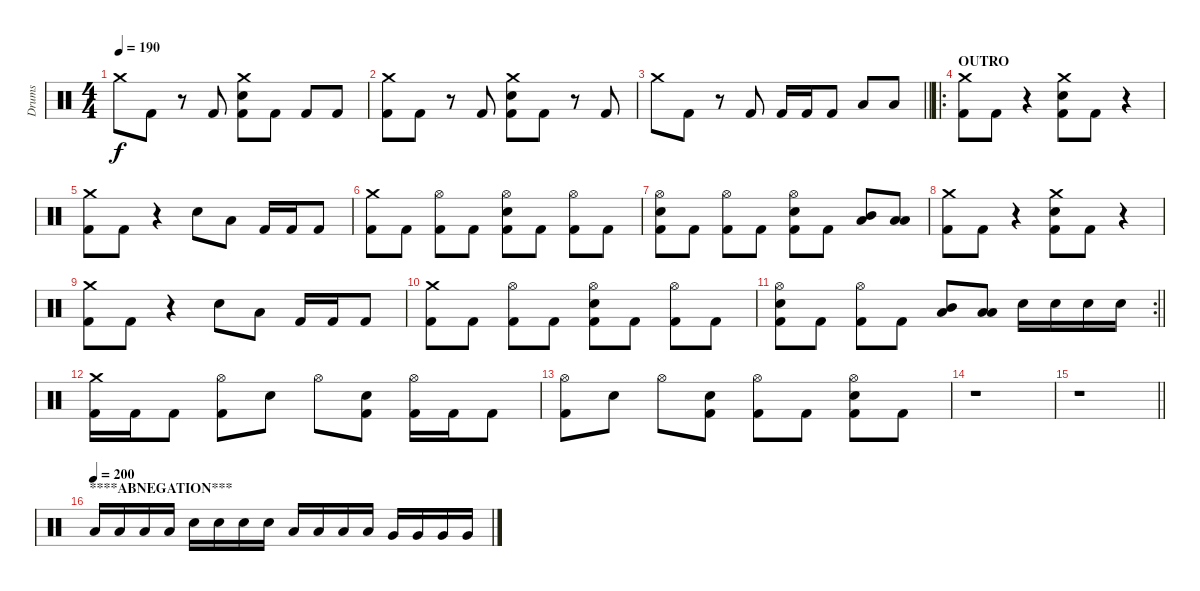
\track ("Drums" "Drums") {instrument percussion}
\staff {score}
\articulation defaults
\ts (4 4)
\tempo 190
\clef neutral
\ks c "Crash medium (hit)".8{dy f} "Kick (hit) 2".8
r.8 "Kick (hit) 2".8 ("Crash medium (hit)" "Electric Snare (hit)" "Kick (hit) 2").8 "Kick (hit) 2".8 "Kick (hit) 2".8 "Kick (hit) 2".8 |
("Crash medium (hit)" "Kick (hit) 2").8 "Kick (hit) 2".8 r.8 "Kick (hit) 2".8 ("Crash medium (hit)" "Electric Snare (hit)" "Kick (hit) 2").8 "Kick (hit) 2".8 r.8 "Kick (hit) 2".8 |
\barLineRight lightlight "Crash medium (hit)".8 "Kick (hit) 2".8
r.8 "Kick (hit) 2".8 "Kick (hit) 2".16 "Kick (hit) 2".16 "Kick (hit) 2".8 "Low Floor Tom (hit)".8 "Low Tom (hit)".8 |
\ro
\section ("" "OUTRO ")
("Crash medium (hit)" "Kick (hit) 2").8 "Kick (hit) 2".8 r.4 ("Crash medium (hit)" "Electric Snare (hit)" "Kick (hit) 2").8 "Kick (hit) 2".8 r.4 |
("Crash medium (hit)" "Kick (hit) 2").8 "Kick (hit) 2".8 r.4 "Electric Snare (hit)".8 "Low Floor Tom (hit)".8 "Kick (hit) 2".16 "Kick (hit) 2".16 "Kick (hit) 2".8 |
("Crash medium (hit)" "Kick (hit) 2").8 "Kick (hit) 2".8 ("Hi-Hat (open)" "Kick (hit) 2").8 "Kick (hit) 2".8 ("Hi-Hat (open)" "Electric Snare (hit)" "Kick (hit) 2").8 "Kick (hit) 2".8 ("Hi-Hat (open)" "Kick (hit) 2").8 "Kick (hit) 2".8 |
("Hi-Hat (open)" "Electric Snare (hit)" "Kick (hit) 2").8 "Kick (hit) 2".8 ("Hi-Hat (open)" "Kick (hit) 2").8 "Kick (hit) 2".8 ("Hi-Hat (open)" "Electric Snare (hit)" "Kick (hit) 2").8 "Kick (hit) 2".8 ("Mid Tom (hit)" "Low Tom (hit)").8 ("Low Tom (hit)" "Low Floor Tom (hit)").8 |
("Crash medium (hit)" "Kick (hit) 2").8 "Kick (hit) 2".8 r.4 ("Crash medium (hit)" "Electric Snare (hit)" "Kick (hit) 2").8 "Kick (hit) 2".8 r.4 |
("Crash medium (hit)" "Kick (hit) 2").8 "Kick (hit) 2".8 r.4 "Electric Snare (hit)".8 "Low Floor Tom (hit)".8 "Kick (hit) 2".16 "Kick (hit) 2".16 "Kick (hit) 2".8 |
("Crash medium (hit)" "Kick (hit) 2").8 "Kick (hit) 2".8 ("Hi-Hat (open)" "Kick (hit) 2").8 "Kick (hit) 2".8 ("Hi-Hat (open)" "Electric Snare (hit)" "Kick (hit) 2").8 "Kick (hit) 2".8 ("Hi-Hat (open)" "Kick (hit) 2").8 "Kick (hit) 2".8 |
\rc 2
\barLineRight lightlight
("Hi-Hat (open)" "Electric Snare (hit)" "Kick (hit) 2").8 "Kick (hit) 2".8 ("Hi-Hat (open)" "Kick (hit) 2").8 "Kick (hit) 2".8 ("Mid Tom (hit)" "Low Tom (hit)").8 ("Low Tom (hit)" "Low Floor Tom (hit)").8 "Electric Snare (hit)".16 "Electric Snare (hit)".16 "Electric Snare (hit)".16 "Electric Snare (hit)".16 |
("Crash medium (hit)" "Kick (hit) 2").16 "Kick (hit) 2".16 "Kick (hit) 2".8 ("Hi-Hat (open)" "Kick (hit) 2").8 "Electric Snare (hit)".8 "Hi-Hat (open)".8 ("Electric Snare (hit)" "Kick (hit) 2").8 ("Hi-Hat (open)" "Kick (hit) 2").16 "Kick (hit) 2".16 "Kick (hit) 2".8 |
("Hi-Hat (open)" "Kick (hit) 2").8 "Electric Snare (hit)".8 "Hi-Hat (open)".8 ("Electric Snare (hit)" "Kick (hit) 2").8 ("Hi-Hat (open)" "Kick (hit) 2").8 "Kick (hit) 2".8 ("Hi-Hat (open)" "Electric Snare (hit)" "Kick (hit) 2").8 "Kick (hit) 2".8 |
r.1 |
\barLineRight lightlight
r.1 |
\section ("" "****ABNEGATION***")
\tempo (200)
"Low Floor Tom (hit)".16 "Low Floor Tom (hit)".16 "Low Floor Tom (hit)".16 "Low Floor Tom (hit)".16 "Electric Snare (hit)".16 "Electric Snare (hit)".16 "Electric Snare (hit)".16 "Electric Snare (hit)".16 "Low Tom (hit)".16 "Low Tom (hit)".16 "Low Tom (hit)".16 "Low Tom (hit)".16 "Very Low Tom (hit)".16 "Very Low Tom (hit)".16 "Very Low Tom (hit)".16 "Very Low Tom (hit)".16
